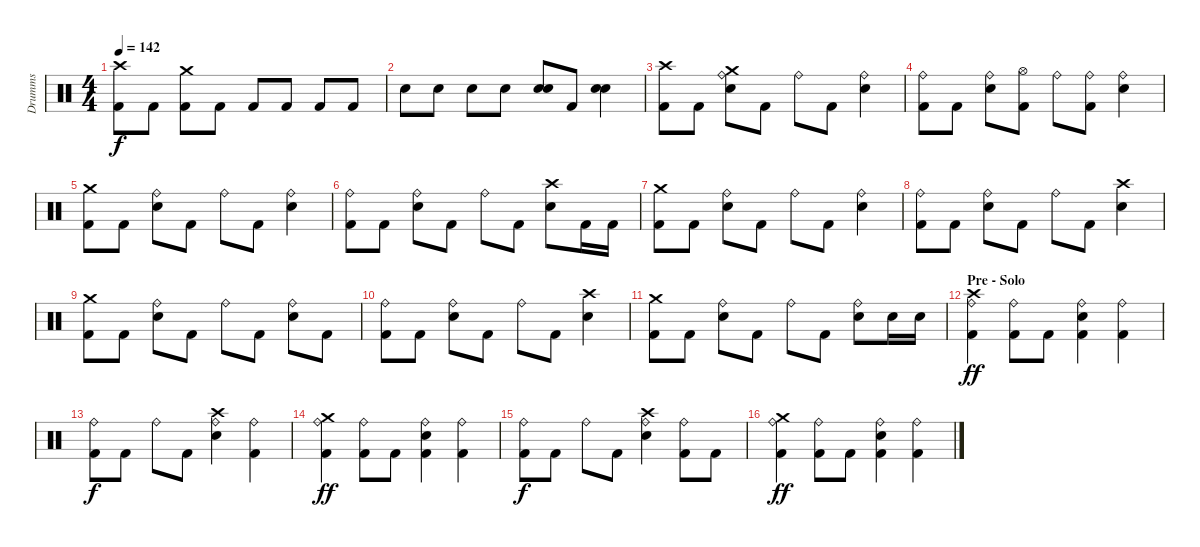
\track ("Drumms" "Drumms") {instrument percussion}
\staff {score}
\articulation defaults
\ts (4 4)
\tempo 142
\clef neutral
\ks c
("Crash high (hit)" "Kick (hit) 2").8{dy f} "Kick (hit) 2".8 ("Crash medium (hit)" "Kick (hit) 2").8 "Kick (hit) 2".8 "Kick (hit) 2".8 "Kick (hit) 2".8 "Kick (hit) 2".8 "Kick (hit) 2".8 |
"Electric Snare (hit)".8 "Electric Snare (hit)".8 "Electric Snare (hit)".8 "Electric Snare (hit)".8 ("Snare (hit) 2" "Electric Snare (hit)").8 "Kick (hit) 2".8 ("Electric Snare (hit)" "Snare (hit) 2").4 |
\section ("" "")
("Kick (hit) 2" "Crash high (hit)").8 "Kick (hit) 2".8 ("Electric Snare (hit)" "Crash medium (hit)" "Ride (bell)").8 "Kick (hit) 2".8 "Ride (bell)".8 "Kick (hit) 2".8 ("Electric Snare (hit)" "Ride (bell)").4 |
("Ride (bell)" "Kick (hit) 2").8 "Kick (hit) 2".8 ("Ride (bell)" "Electric Snare (hit)").8 ("Hi-Hat (open)" "Kick (hit) 2").8 "Ride (bell)".8 ("Ride (bell)" "Kick (hit) 2").8 ("Ride (bell)" "Electric Snare (hit)").4 |
("Kick (hit) 2" "Crash medium (hit)").8 "Kick (hit) 2".8 ("Electric Snare (hit)" "Ride (bell)").8 "Kick (hit) 2".8 "Ride (bell)".8 "Kick (hit) 2".8 ("Electric Snare (hit)" "Ride (bell)").4 |
("Kick (hit) 2" "Ride (bell)").8 "Kick (hit) 2".8 ("Electric Snare (hit)" "Ride (bell)").8 "Kick (hit) 2".8 "Ride (bell)".8 "Kick (hit) 2".8 ("Electric Snare (hit)" "Crash high (hit)").8 "Kick (hit) 2".16 "Kick (hit) 2".16 |
("Kick (hit) 2" "Crash medium (hit)").8 "Kick (hit) 2".8 ("Electric Snare (hit)" "Ride (bell)").8 "Kick (hit) 2".8 "Ride (bell)".8 "Kick (hit) 2".8 ("Electric Snare (hit)" "Ride (bell)").4 |
("Kick (hit) 2" "Ride (bell)").8 "Kick (hit) 2".8 ("Electric Snare (hit)" "Ride (bell)").8 "Kick (hit) 2".8 "Ride (bell)".8 "Kick (hit) 2".8 ("Electric Snare (hit)" "Crash high (hit)").4 |
("Kick (hit) 2" "Crash medium (hit)").8 "Kick (hit) 2".8 ("Electric Snare (hit)" "Ride (bell)").8 "Kick (hit) 2".8 "Ride (bell)".8 "Kick (hit) 2".8 ("Electric Snare (hit)" "Ride (bell)").8 "Kick (hit) 2".8 |
("Kick (hit) 2" "Ride (bell)").8 "Kick (hit) 2".8 ("Electric Snare (hit)" "Ride (bell)").8 "Kick (hit) 2".8 "Ride (bell)".8 "Kick (hit) 2".8 ("Electric Snare (hit)" "Crash high (hit)").4 |
("Kick (hit) 2" "Crash medium (hit)").8 "Kick (hit) 2".8 ("Electric Snare (hit)" "Ride (bell)").8 "Kick (hit) 2".8 "Ride (bell)".8 "Kick (hit) 2".8 ("Electric Snare (hit)" "Ride (bell)").8 "Electric Snare (hit)".16 "Electric Snare (hit)".16 |
\section ("" "Pre - Solo")
("Kick (hit) 2" "Crash high (hit)" "Ride (bell)").4{dy ff} ("Kick (hit) 2" "Ride (bell)").8 "Kick (hit) 2".8 ("Kick (hit) 2" "Electric Snare (hit)" "Ride (bell)").4 ("Kick (hit) 2" "Ride (bell)").4 |
("Kick (hit) 2" "Ride (bell)").8{dy f} "Kick (hit) 2".8 "Ride (bell)".8 "Kick (hit) 2".8 ("Ride (bell)" "Electric Snare (hit)" "Crash high (hit)").4 ("Kick (hit) 2" "Ride (bell)").4 |
("Kick (hit) 2" "Crash medium (hit)" "Ride (bell)").4{dy ff} ("Kick (hit) 2" "Ride (bell)").8 "Kick (hit) 2".8 ("Kick (hit) 2" "Electric Snare (hit)" "Ride (bell)").4 ("Kick (hit) 2" "Ride (bell)").4 |
("Kick (hit) 2" "Ride (bell)").8{dy f} "Kick (hit) 2".8 "Ride (bell)".8 "Kick (hit) 2".8 ("Ride (bell)" "Electric Snare (hit)" "Crash high (hit)").4 ("Kick (hit) 2" "Ride (bell)").8 "Kick (hit) 2".8 |
("Kick (hit) 2" "Crash medium (hit)" "Ride (bell)").4{dy ff} ("Kick (hit) 2" "Ride (bell)").8 "Kick (hit) 2".8 ("Kick (hit) 2" "Electric Snare (hit)" "Ride (bell)").4 ("Kick (hit) 2" "Ride (bell)").4
